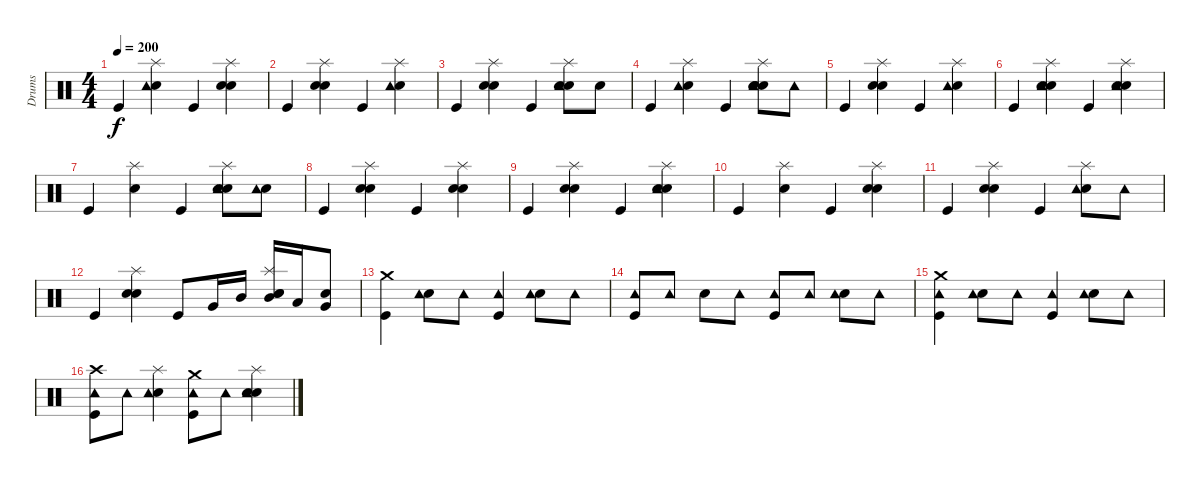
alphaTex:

\track ("Drums" "Drums") {instrument percussion}
\staff {score}
\articulation defaults
\ts (4 4)
\tempo 200
\clef neutral
\ks c "Kick (hit)".4{dy f}
("Snare (hit) 2" "Tambourine (hit)" "Splash (hit)").4 "Kick (hit)".4 ("Snare (hit) 2" "Electric Snare (hit)" "Splash (hit)").4 |
"Kick (hit)".4 ("Snare (hit) 2" "Electric Snare (hit)" "Splash (hit)").4 "Kick (hit)".4 ("Snare (hit) 2" "Tambourine (hit)" "Splash (hit)").4 |
"Kick (hit)".4 ("Snare (hit) 2" "Electric Snare (hit)" "Splash (hit)").4 "Kick (hit)".4 ("Snare (hit) 2" "Electric Snare (hit)" "Tambourine (hit)" "Splash (hit)").8 "Electric Snare (hit)".8 |
"Kick (hit)".4 ("Snare (hit) 2" "Tambourine (hit)" "Splash (hit)").4 "Kick (hit)".4 ("Snare (hit) 2" "Electric Snare (hit)" "Electric Snare (hit)" "Tambourine (hit)" "Splash (hit)").8 "Tambourine (hit)".8 |
"Kick (hit)".4 ("Snare (hit) 2" "Electric Snare (hit)" "Splash (hit)").4 "Kick (hit)".4 ("Snare (hit) 2" "Tambourine (hit)" "Splash (hit)").4 |
"Kick (hit)".4 ("Snare (hit) 2" "Electric Snare (hit)" "Tambourine (hit)" "Splash (hit)").4 "Kick (hit)".4 ("Snare (hit) 2" "Electric Snare (hit)" "Tambourine (hit)" "Splash (hit)").4 |
"Kick (hit)".4 ("Snare (hit) 2" "Splash (hit)").4 "Kick (hit)".4 ("Snare (hit) 2" "Electric Snare (hit)" "Tambourine (hit)" "Splash (hit)").8 ("Electric Snare (hit)" "Tambourine (hit)").8 |
"Kick (hit)".4 ("Snare (hit) 2" "Electric Snare (hit)" "Splash (hit)").4 "Kick (hit)".4 ("Snare (hit) 2" "Electric Snare (hit)" "Splash (hit)").4 |
"Kick (hit)".4 ("Snare (hit) 2" "Electric Snare (hit)" "Splash (hit)").4 "Kick (hit)".4 ("Snare (hit) 2" "Electric Snare (hit)" "Tambourine (hit)" "Splash (hit)").4 |
"Kick (hit)".4 ("Snare (hit) 2" "Splash (hit)").4 "Kick (hit)".4 ("Snare (hit) 2" "Electric Snare (hit)" "Splash (hit)").4 |
"Kick (hit)".4 ("Snare (hit) 2" "Electric Snare (hit)" "Splash (hit)").4 "Kick (hit)".4 ("Snare (hit) 2" "Tambourine (hit)" "Splash (hit)").8 "Tambourine (hit)".8 |
"Kick (hit)".4 ("Snare (hit) 2" "Electric Snare (hit)" "Splash (hit)").4 "Kick (hit)".8 "Very Low Tom (hit)".16 "Mid Tom (hit)".16 ("Snare (hit) 2" "Electric Snare (hit)" "Mid Tom (hit)" "Splash (hit)").16 "Low Tom (hit)".16 ("Electric Snare (hit)" "Very Low Tom (hit)").8 |
("Kick (hit)" "Crash medium (hit)").4 ("Snare (hit) 2" "Tambourine (hit)").8 "Tambourine (hit)".8 ("Kick (hit)" "Tambourine (hit)").4 ("Snare (hit) 2" "Tambourine (hit)").8 "Tambourine (hit)".8 |
("Kick (hit)" "Tambourine (hit)").8 "Tambourine (hit)".8 "Snare (hit) 2".8 "Tambourine (hit)".8 ("Kick (hit)" "Tambourine (hit)").8 "Tambourine (hit)".8 ("Snare (hit) 2" "Tambourine (hit)").8 "Tambourine (hit)".8 |
("Kick (hit)" "Tambourine (hit)" "Crash medium (hit)").4 ("Snare (hit) 2" "Tambourine (hit)").8 "Tambourine (hit)".8 ("Kick (hit)" "Tambourine (hit)").4 ("Snare (hit) 2" "Tambourine (hit)").8 "Tambourine (hit)".8 |
("Kick (hit)" "Crash high (hit)" "Tambourine (hit)").8 "Tambourine (hit)".8 ("Snare (hit) 2" "Tambourine (hit)" "Splash (hit)").4 ("Kick (hit)" "Tambourine (hit)" "Crash medium (hit)").8 "Tambourine (hit)".8 ("Snare (hit) 2" "Electric Snare (hit)" "Tambourine (hit)" "Splash (hit)").4
